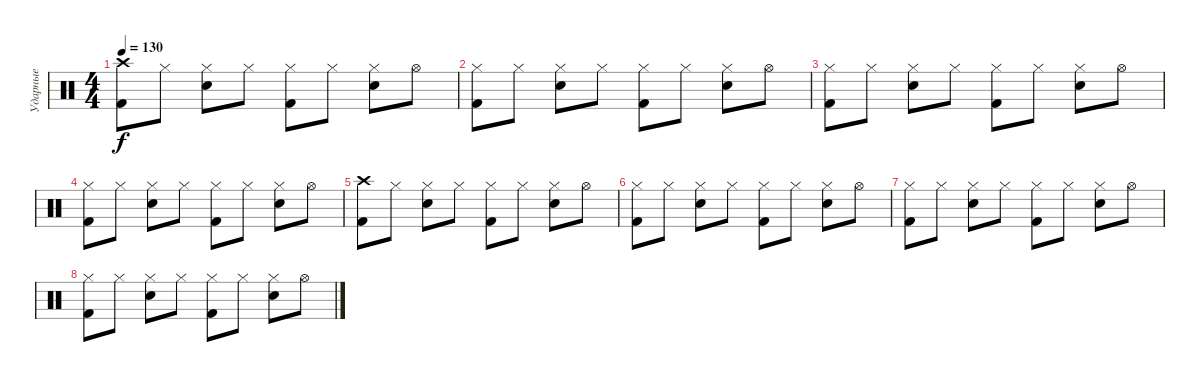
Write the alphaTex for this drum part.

\track ("Ударные" "Ударные") {instrument percussion}
\staff {score}
\articulation defaults
\ts (4 4)
\tempo 130
\clef neutral
\ks c
("Crash high (hit)" "Kick (hit) 2").8{dy f} "Hi-Hat (closed)".8 ("Hi-Hat (closed)" "Electric Snare (hit)").8 "Hi-Hat (closed)".8 ("Hi-Hat (closed)" "Kick (hit) 2").8 "Hi-Hat (closed)".8 ("Hi-Hat (closed)" "Electric Snare (hit)").8 "Hi-Hat (open)".8 |
("Hi-Hat (closed)" "Kick (hit) 2").8 "Hi-Hat (closed)".8 ("Hi-Hat (closed)" "Electric Snare (hit)").8 "Hi-Hat (closed)".8 ("Hi-Hat (closed)" "Kick (hit) 2").8 "Hi-Hat (closed)".8 ("Hi-Hat (closed)" "Electric Snare (hit)").8 "Hi-Hat (open)".8 |
("Hi-Hat (closed)" "Kick (hit) 2").8 "Hi-Hat (closed)".8 ("Hi-Hat (closed)" "Electric Snare (hit)").8 "Hi-Hat (closed)".8 ("Hi-Hat (closed)" "Kick (hit) 2").8 "Hi-Hat (closed)".8 ("Hi-Hat (closed)" "Electric Snare (hit)").8 "Hi-Hat (open)".8 |
("Hi-Hat (closed)" "Kick (hit) 2").8 "Hi-Hat (closed)".8 ("Hi-Hat (closed)" "Electric Snare (hit)").8 "Hi-Hat (closed)".8 ("Hi-Hat (closed)" "Kick (hit) 2").8 "Hi-Hat (closed)".8 ("Hi-Hat (closed)" "Electric Snare (hit)").8 "Hi-Hat (open)".8 |
("Crash high (hit)" "Kick (hit) 2").8 "Hi-Hat (closed)".8 ("Hi-Hat (closed)" "Electric Snare (hit)").8 "Hi-Hat (closed)".8 ("Hi-Hat (closed)" "Kick (hit) 2").8 "Hi-Hat (closed)".8 ("Hi-Hat (closed)" "Electric Snare (hit)").8 "Hi-Hat (open)".8 |
("Hi-Hat (closed)" "Kick (hit) 2").8 "Hi-Hat (closed)".8 ("Hi-Hat (closed)" "Electric Snare (hit)").8 "Hi-Hat (closed)".8 ("Hi-Hat (closed)" "Kick (hit) 2").8 "Hi-Hat (closed)".8 ("Hi-Hat (closed)" "Electric Snare (hit)").8 "Hi-Hat (open)".8 |
("Hi-Hat (closed)" "Kick (hit) 2").8 "Hi-Hat (closed)".8 ("Hi-Hat (closed)" "Electric Snare (hit)").8 "Hi-Hat (closed)".8 ("Hi-Hat (closed)" "Kick (hit) 2").8 "Hi-Hat (closed)".8 ("Hi-Hat (closed)" "Electric Snare (hit)").8 "Hi-Hat (open)".8 |
("Hi-Hat (closed)" "Kick (hit) 2").8 "Hi-Hat (closed)".8 ("Hi-Hat (closed)" "Electric Snare (hit)").8 "Hi-Hat (closed)".8 ("Hi-Hat (closed)" "Kick (hit) 2").8 "Hi-Hat (closed)".8 ("Hi-Hat (closed)" "Electric Snare (hit)").8 "Hi-Hat (open)".8
